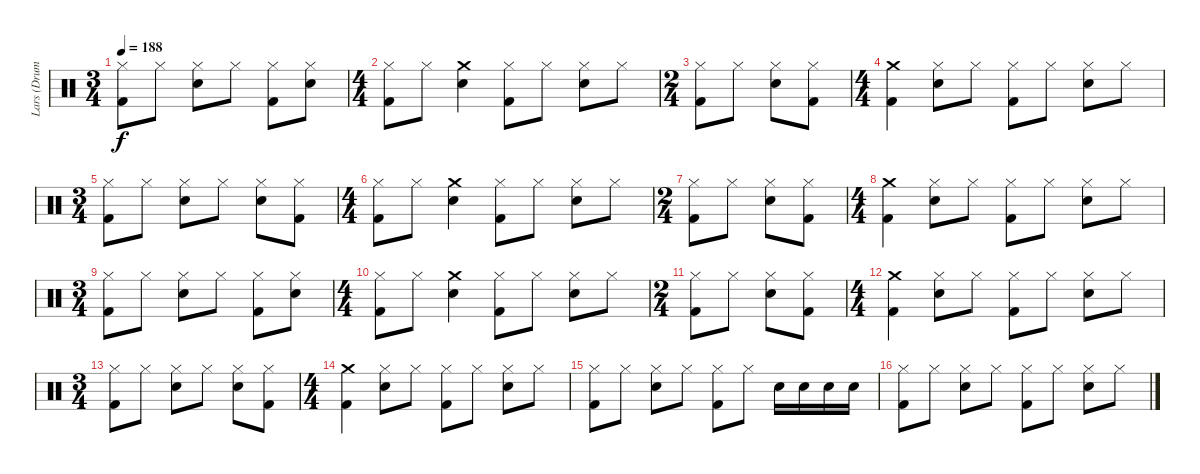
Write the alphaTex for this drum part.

\track ("Lars (Drums)" "Lars (Drum") {instrument percussion}
\staff {score}
\articulation defaults
\ts (3 4)
\tempo 188
\clef neutral
\ks c
("Kick (hit) 2" "Hi-Hat (closed)").8{dy f} "Hi-Hat (closed)".8 ("Snare (hit) 2" "Hi-Hat (closed)").8 "Hi-Hat (closed)".8 ("Kick (hit) 2" "Hi-Hat (closed)").8 ("Snare (hit) 2" "Hi-Hat (closed)").8 |
\ts (4 4)
("Hi-Hat (closed)" "Kick (hit) 2").8 "Hi-Hat (closed)".8 ("Snare (hit) 2" "Crash medium (hit)").4 ("Hi-Hat (closed)" "Kick (hit) 2").8 "Hi-Hat (closed)".8 ("Snare (hit) 2" "Hi-Hat (closed)").8 "Hi-Hat (closed)".8 |
\ts (2 4)
("Kick (hit) 2" "Hi-Hat (closed)").8 "Hi-Hat (closed)".8 ("Snare (hit) 2" "Hi-Hat (closed)").8 ("Kick (hit) 2" "Hi-Hat (closed)").8 |
\ts (4 4)
("Crash medium (hit)" "Kick (hit) 2").4 ("Snare (hit) 2" "Hi-Hat (closed)").8 "Hi-Hat (closed)".8 ("Hi-Hat (closed)" "Kick (hit) 2").8 "Hi-Hat (closed)".8 ("Snare (hit) 2" "Hi-Hat (closed)").8 "Hi-Hat (closed)".8 |
\ts (3 4)
("Kick (hit) 2" "Hi-Hat (closed)").8 "Hi-Hat (closed)".8 ("Snare (hit) 2" "Hi-Hat (closed)").8 "Hi-Hat (closed)".8 ("Hi-Hat (closed)" "Snare (hit) 2").8 ("Kick (hit) 2" "Hi-Hat (closed)").8 |
\ts (4 4)
("Hi-Hat (closed)" "Kick (hit) 2").8 "Hi-Hat (closed)".8 ("Snare (hit) 2" "Crash medium (hit)").4 ("Hi-Hat (closed)" "Kick (hit) 2").8 "Hi-Hat (closed)".8 ("Snare (hit) 2" "Hi-Hat (closed)").8 "Hi-Hat (closed)".8 |
\ts (2 4)
("Kick (hit) 2" "Hi-Hat (closed)").8 "Hi-Hat (closed)".8 ("Snare (hit) 2" "Hi-Hat (closed)").8 ("Kick (hit) 2" "Hi-Hat (closed)").8 |
\ts (4 4)
("Crash medium (hit)" "Kick (hit) 2").4 ("Snare (hit) 2" "Hi-Hat (closed)").8 "Hi-Hat (closed)".8 ("Hi-Hat (closed)" "Kick (hit) 2").8 "Hi-Hat (closed)".8 ("Snare (hit) 2" "Hi-Hat (closed)").8 "Hi-Hat (closed)".8 |
\ts (3 4)
("Kick (hit) 2" "Hi-Hat (closed)").8 "Hi-Hat (closed)".8 ("Snare (hit) 2" "Hi-Hat (closed)").8 "Hi-Hat (closed)".8 ("Kick (hit) 2" "Hi-Hat (closed)").8 ("Snare (hit) 2" "Hi-Hat (closed)").8 |
\ts (4 4)
("Hi-Hat (closed)" "Kick (hit) 2").8 "Hi-Hat (closed)".8 ("Snare (hit) 2" "Crash medium (hit)").4 ("Hi-Hat (closed)" "Kick (hit) 2").8 "Hi-Hat (closed)".8 ("Snare (hit) 2" "Hi-Hat (closed)").8 "Hi-Hat (closed)".8 |
\ts (2 4)
("Kick (hit) 2" "Hi-Hat (closed)").8 "Hi-Hat (closed)".8 ("Snare (hit) 2" "Hi-Hat (closed)").8 ("Kick (hit) 2" "Hi-Hat (closed)").8 |
\ts (4 4)
("Crash medium (hit)" "Kick (hit) 2").4 ("Snare (hit) 2" "Hi-Hat (closed)").8 "Hi-Hat (closed)".8 ("Hi-Hat (closed)" "Kick (hit) 2").8 "Hi-Hat (closed)".8 ("Snare (hit) 2" "Hi-Hat (closed)").8 "Hi-Hat (closed)".8 |
\ts (3 4)
("Kick (hit) 2" "Hi-Hat (closed)").8 "Hi-Hat (closed)".8 ("Snare (hit) 2" "Hi-Hat (closed)").8 "Hi-Hat (closed)".8 ("Hi-Hat (closed)" "Snare (hit) 2").8 ("Kick (hit) 2" "Hi-Hat (closed)").8 |
\ts (4 4)
("Kick (hit) 2" "Crash medium (hit)").4 ("Hi-Hat (closed)" "Snare (hit) 2").8 "Hi-Hat (closed)".8 ("Hi-Hat (closed)" "Kick (hit) 2").8 "Hi-Hat (closed)".8 ("Snare (hit) 2" "Hi-Hat (closed)").8 "Hi-Hat (closed)".8 |
("Hi-Hat (closed)" "Kick (hit) 2").8 "Hi-Hat (closed)".8 ("Snare (hit) 2" "Hi-Hat (closed)").8 "Hi-Hat (closed)".8 ("Hi-Hat (closed)" "Kick (hit) 2").8 "Hi-Hat (closed)".8 "Snare (hit) 2".16 "Snare (hit) 2".16 "Snare (hit) 2".16 "Snare (hit) 2".16 |
("Hi-Hat (closed)" "Kick (hit) 2").8 "Hi-Hat (closed)".8 ("Snare (hit) 2" "Hi-Hat (closed)").8 "Hi-Hat (closed)".8 ("Hi-Hat (closed)" "Kick (hit) 2").8 "Hi-Hat (closed)".8 ("Snare (hit) 2" "Hi-Hat (closed)").8 "Hi-Hat (closed)".8
